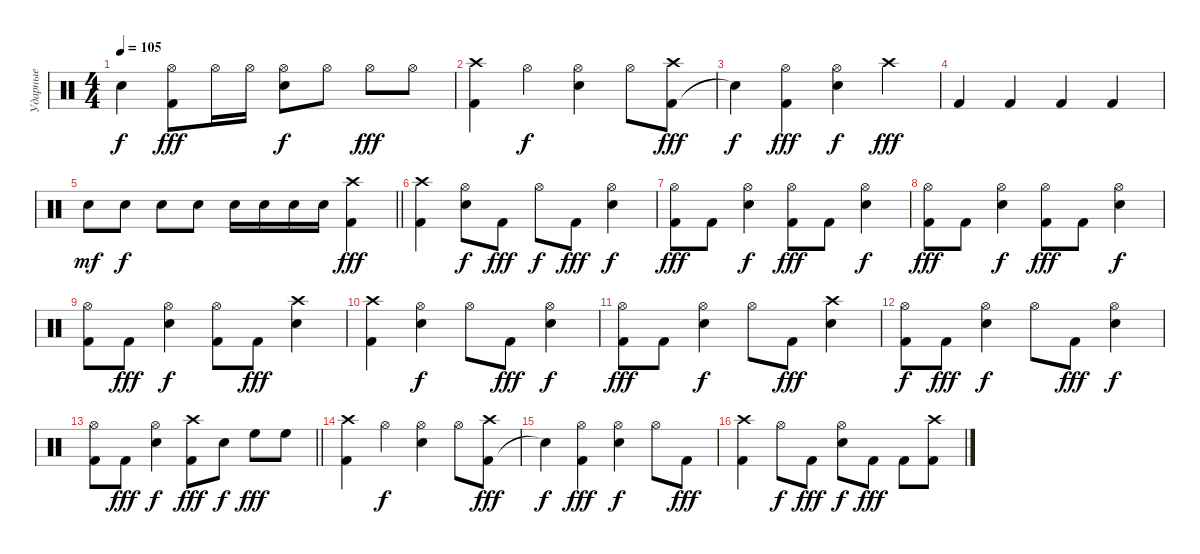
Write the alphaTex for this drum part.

\track ("Ударные" "Ударные") {instrument percussion}
\staff {score}
\articulation defaults
\ts (4 4)
\tempo 105
\clef neutral
\ks c "Snare (hit)"{t}.4{dy f}
("Kick (hit) 2" "Hi-Hat (open)").8{dy fff} "Hi-Hat (open)".16 "Hi-Hat (open)".16 ("Snare (hit) 2" "Hi-Hat (open)").8{dy f} "Hi-Hat (open)".8 "Hi-Hat (open)".8{dy fff} "Hi-Hat (open)".8 |
("Kick (hit) 2" "Crash high (hit)").4 "Hi-Hat (open)".4{dy f} ("Snare (hit) 2" "Hi-Hat (open)").4 "Hi-Hat (open)".8 ("Kick (hit) 2" "Crash high (hit)").8{dy fff} |
"Snare (hit)"{t}.4{dy f} ("Kick (hit) 2" "Hi-Hat (open)").4{dy fff} ("Snare (hit) 2" "Hi-Hat (open)").4{dy f} "Crash high (hit)".4{dy fff} |
"Kick (hit) 2".4 "Kick (hit) 2".4 "Kick (hit) 2".4 "Kick (hit) 2".4 |
\barLineRight lightlight "Snare (hit) 2".8{dy mf} "Snare (hit) 2".8{dy f} "Snare (hit) 2".8 "Snare (hit) 2".8 "Snare (hit) 2".16 "Snare (hit) 2".16 "Snare (hit) 2".16 "Snare (hit) 2".16
("Kick (hit) 2" "Crash high (hit)").4{dy fff} |
("Kick (hit) 2" "Crash high (hit)").4 ("Snare (hit) 2" "Hi-Hat (open)").8{dy f} "Kick (hit) 2".8{dy fff} "Hi-Hat (open)".8{dy f} "Kick (hit) 2".8{dy fff} ("Snare (hit) 2" "Hi-Hat (open)").4{dy f} |
("Kick (hit) 2" "Hi-Hat (open)").8{dy fff} "Kick (hit) 2".8 ("Snare (hit) 2" "Hi-Hat (open)").4{dy f} ("Kick (hit) 2" "Hi-Hat (open)").8{dy fff} "Kick (hit) 2".8 ("Snare (hit) 2" "Hi-Hat (open)").4{dy f} |
("Kick (hit) 2" "Hi-Hat (open)").8{dy fff} "Kick (hit) 2".8 ("Snare (hit) 2" "Hi-Hat (open)").4{dy f} ("Kick (hit) 2" "Hi-Hat (open)").8{dy fff} "Kick (hit) 2".8 ("Snare (hit) 2" "Hi-Hat (open)").4{dy f} |
("Kick (hit) 2" "Hi-Hat (open)").8 "Kick (hit) 2".8{dy fff} ("Snare (hit) 2" "Hi-Hat (open)").4{dy f} ("Kick (hit) 2" "Hi-Hat (open)").8 "Kick (hit) 2".8{dy fff} ("Snare (hit) 2" "Crash high (hit)").4 |
("Kick (hit) 2" "Crash high (hit)").4 ("Snare (hit) 2" "Hi-Hat (open)").4{dy f} "Hi-Hat (open)".8 "Kick (hit) 2".8{dy fff} ("Snare (hit) 2" "Hi-Hat (open)").4{dy f} |
("Kick (hit) 2" "Hi-Hat (open)").8{dy fff} "Kick (hit) 2".8 ("Snare (hit) 2" "Hi-Hat (open)").4{dy f} "Hi-Hat (open)".8 "Kick (hit) 2".8{dy fff} ("Snare (hit) 2" "Crash high (hit)").4 |
("Kick (hit) 2" "Hi-Hat (open)").8{dy f} "Kick (hit) 2".8{dy fff} ("Snare (hit) 2" "Hi-Hat (open)").4{dy f} "Hi-Hat (open)".8 "Kick (hit) 2".8{dy fff} ("Snare (hit) 2" "Hi-Hat (open)").4{dy f} |
\barLineRight lightlight
("Kick (hit) 2" "Hi-Hat (open)").8 "Kick (hit) 2".8{dy fff} ("Snare (hit) 2" "Hi-Hat (open)").4{dy f} ("Kick (hit) 2" "Crash high (hit)").8{dy fff} "Snare (hit) 2".8{dy f} "High Floor Tom (hit)".8{dy fff} "High Floor Tom (hit)".8 |
("Kick (hit) 2" "Crash high (hit)").4 "Hi-Hat (open)".4{dy f} ("Snare (hit) 2" "Hi-Hat (open)").4 "Hi-Hat (open)".8 ("Kick (hit) 2" "Crash high (hit)").8{dy fff} |
"Snare (hit)"{t}.4{dy f} ("Kick (hit) 2" "Hi-Hat (open)").4{dy fff} ("Snare (hit) 2" "Hi-Hat (open)").4{dy f} "Hi-Hat (open)".8 "Kick (hit) 2".8{dy fff} |
("Kick (hit) 2" "Crash high (hit)").4 "Hi-Hat (open)".8{dy f} "Kick (hit) 2".8{dy fff} ("Snare (hit) 2" "Hi-Hat (open)").8{dy f} "Kick (hit) 2".8{dy fff} "Kick (hit) 2".8 ("Kick (hit) 2" "Crash high (hit)").8
